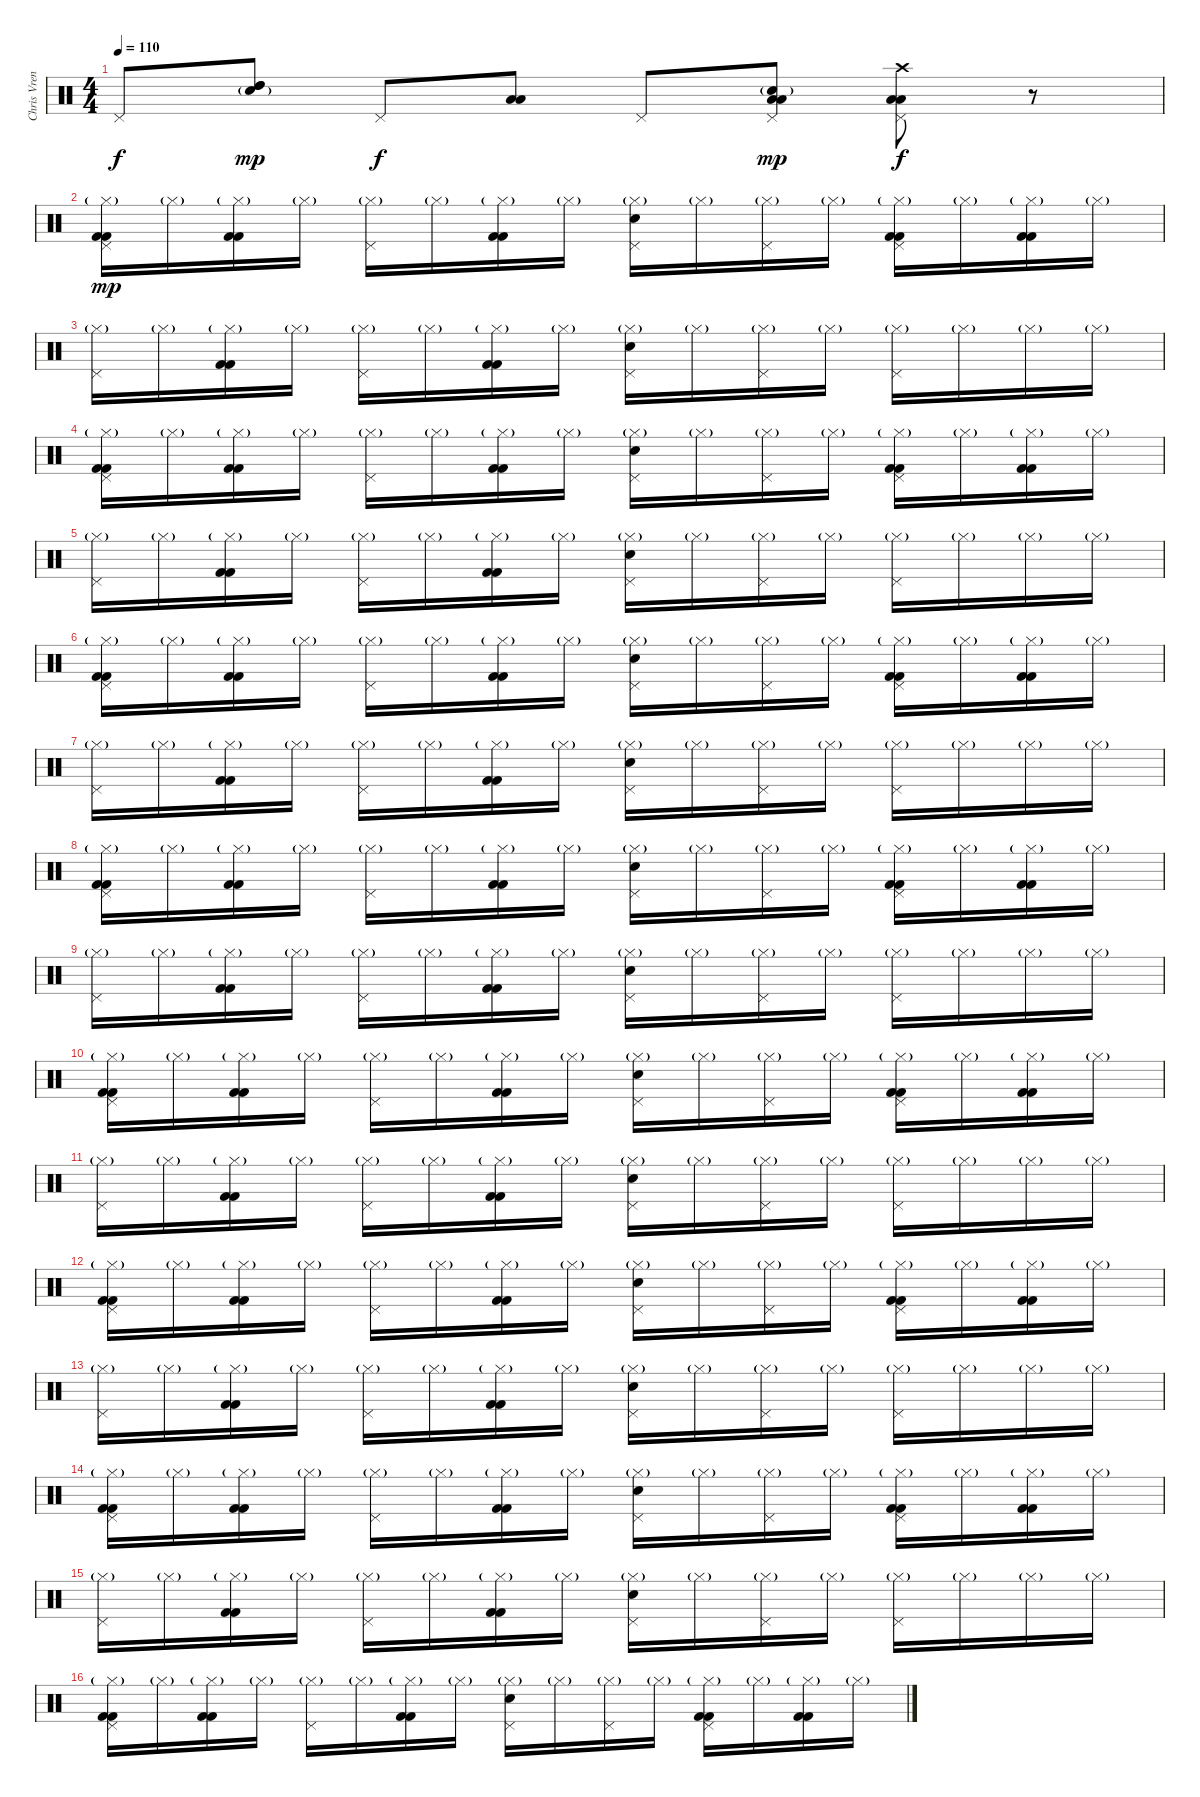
\track ("Chris Vrenna " "Chris Vren") {instrument percussion}
\staff {score}
\articulation defaults
\ts (4 4)
\tempo 110
\clef neutral
\ks c "Pedal Hi-Hat (hit)".8{dy f}
("Snare (hit) 2"{g} "High Tom (hit)" "High Tom (hit)").8{dy mp} "Pedal Hi-Hat (hit)".8{dy f} ("Low Floor Tom (hit)" "Low Floor Tom (hit)").8 "Pedal Hi-Hat (hit)".8 ("Snare (hit) 2"{g} "Pedal Hi-Hat (hit)" "Low Floor Tom (hit)" "Low Floor Tom (hit)").8{dy mp} ("Crash high (hit)" "Pedal Hi-Hat (hit)" "Low Floor Tom (hit)" "Low Floor Tom (hit)").8{dy f} r.8 |
("Pedal Hi-Hat (hit)" "Hi-Hat (closed)"{g} "Kick (hit) 2" "Kick (hit) 2").16{dy mp} "Hi-Hat (closed)"{g}.16 ("Hi-Hat (closed)"{g} "Kick (hit) 2" "Kick (hit) 2").16 "Hi-Hat (closed)"{g}.16 ("Pedal Hi-Hat (hit)" "Hi-Hat (closed)"{g}).16 "Hi-Hat (closed)"{g}.16 ("Hi-Hat (closed)"{g} "Kick (hit) 2" "Kick (hit) 2").16 "Hi-Hat (closed)"{g}.16 ("Pedal Hi-Hat (hit)" "Hi-Hat (closed)"{g} "Electric Snare (hit)").16 "Hi-Hat (closed)"{g}.16 ("Pedal Hi-Hat (hit)" "Hi-Hat (closed)"{g}).16 "Hi-Hat (closed)"{g}.16 ("Pedal Hi-Hat (hit)" "Hi-Hat (closed)"{g} "Kick (hit) 2" "Kick (hit) 2").16 "Hi-Hat (closed)"{g}.16 ("Hi-Hat (closed)"{g} "Kick (hit) 2" "Kick (hit) 2").16 "Hi-Hat (closed)"{g}.16 |
("Pedal Hi-Hat (hit)" "Hi-Hat (closed)"{g}).16 "Hi-Hat (closed)"{g}.16 ("Hi-Hat (closed)"{g} "Kick (hit) 2" "Kick (hit) 2").16 "Hi-Hat (closed)"{g}.16 ("Pedal Hi-Hat (hit)" "Hi-Hat (closed)"{g}).16 "Hi-Hat (closed)"{g}.16 ("Hi-Hat (closed)"{g} "Kick (hit) 2" "Kick (hit) 2").16 "Hi-Hat (closed)"{g}.16 ("Pedal Hi-Hat (hit)" "Hi-Hat (closed)"{g} "Electric Snare (hit)").16 "Hi-Hat (closed)"{g}.16 ("Pedal Hi-Hat (hit)" "Hi-Hat (closed)"{g}).16 "Hi-Hat (closed)"{g}.16 ("Pedal Hi-Hat (hit)" "Hi-Hat (closed)"{g}).16 "Hi-Hat (closed)"{g}.16 "Hi-Hat (closed)"{g}.16 "Hi-Hat (closed)"{g}.16 |
("Pedal Hi-Hat (hit)" "Hi-Hat (closed)"{g} "Kick (hit) 2" "Kick (hit) 2").16 "Hi-Hat (closed)"{g}.16 ("Hi-Hat (closed)"{g} "Kick (hit) 2" "Kick (hit) 2").16 "Hi-Hat (closed)"{g}.16 ("Pedal Hi-Hat (hit)" "Hi-Hat (closed)"{g}).16 "Hi-Hat (closed)"{g}.16 ("Hi-Hat (closed)"{g} "Kick (hit) 2" "Kick (hit) 2").16 "Hi-Hat (closed)"{g}.16 ("Pedal Hi-Hat (hit)" "Hi-Hat (closed)"{g} "Electric Snare (hit)").16 "Hi-Hat (closed)"{g}.16 ("Pedal Hi-Hat (hit)" "Hi-Hat (closed)"{g}).16 "Hi-Hat (closed)"{g}.16 ("Pedal Hi-Hat (hit)" "Hi-Hat (closed)"{g} "Kick (hit) 2" "Kick (hit) 2").16 "Hi-Hat (closed)"{g}.16 ("Hi-Hat (closed)"{g} "Kick (hit) 2" "Kick (hit) 2").16 "Hi-Hat (closed)"{g}.16 |
("Pedal Hi-Hat (hit)" "Hi-Hat (closed)"{g}).16 "Hi-Hat (closed)"{g}.16 ("Hi-Hat (closed)"{g} "Kick (hit) 2" "Kick (hit) 2").16 "Hi-Hat (closed)"{g}.16 ("Pedal Hi-Hat (hit)" "Hi-Hat (closed)"{g}).16 "Hi-Hat (closed)"{g}.16 ("Hi-Hat (closed)"{g} "Kick (hit) 2" "Kick (hit) 2").16 "Hi-Hat (closed)"{g}.16 ("Pedal Hi-Hat (hit)" "Hi-Hat (closed)"{g} "Electric Snare (hit)").16 "Hi-Hat (closed)"{g}.16 ("Pedal Hi-Hat (hit)" "Hi-Hat (closed)"{g}).16 "Hi-Hat (closed)"{g}.16 ("Pedal Hi-Hat (hit)" "Hi-Hat (closed)"{g}).16 "Hi-Hat (closed)"{g}.16 "Hi-Hat (closed)"{g}.16 "Hi-Hat (closed)"{g}.16 |
("Pedal Hi-Hat (hit)" "Hi-Hat (closed)"{g} "Kick (hit) 2" "Kick (hit) 2").16 "Hi-Hat (closed)"{g}.16 ("Hi-Hat (closed)"{g} "Kick (hit) 2" "Kick (hit) 2").16 "Hi-Hat (closed)"{g}.16 ("Pedal Hi-Hat (hit)" "Hi-Hat (closed)"{g}).16 "Hi-Hat (closed)"{g}.16 ("Hi-Hat (closed)"{g} "Kick (hit) 2" "Kick (hit) 2").16 "Hi-Hat (closed)"{g}.16 ("Pedal Hi-Hat (hit)" "Hi-Hat (closed)"{g} "Electric Snare (hit)").16 "Hi-Hat (closed)"{g}.16 ("Pedal Hi-Hat (hit)" "Hi-Hat (closed)"{g}).16 "Hi-Hat (closed)"{g}.16 ("Pedal Hi-Hat (hit)" "Hi-Hat (closed)"{g} "Kick (hit) 2" "Kick (hit) 2").16 "Hi-Hat (closed)"{g}.16 ("Hi-Hat (closed)"{g} "Kick (hit) 2" "Kick (hit) 2").16 "Hi-Hat (closed)"{g}.16 |
("Pedal Hi-Hat (hit)" "Hi-Hat (closed)"{g}).16 "Hi-Hat (closed)"{g}.16 ("Hi-Hat (closed)"{g} "Kick (hit) 2" "Kick (hit) 2").16 "Hi-Hat (closed)"{g}.16 ("Pedal Hi-Hat (hit)" "Hi-Hat (closed)"{g}).16 "Hi-Hat (closed)"{g}.16 ("Hi-Hat (closed)"{g} "Kick (hit) 2" "Kick (hit) 2").16 "Hi-Hat (closed)"{g}.16 ("Pedal Hi-Hat (hit)" "Hi-Hat (closed)"{g} "Electric Snare (hit)").16 "Hi-Hat (closed)"{g}.16 ("Pedal Hi-Hat (hit)" "Hi-Hat (closed)"{g}).16 "Hi-Hat (closed)"{g}.16 ("Pedal Hi-Hat (hit)" "Hi-Hat (closed)"{g}).16 "Hi-Hat (closed)"{g}.16 "Hi-Hat (closed)"{g}.16 "Hi-Hat (closed)"{g}.16 |
("Pedal Hi-Hat (hit)" "Hi-Hat (closed)"{g} "Kick (hit) 2" "Kick (hit) 2").16 "Hi-Hat (closed)"{g}.16 ("Hi-Hat (closed)"{g} "Kick (hit) 2" "Kick (hit) 2").16 "Hi-Hat (closed)"{g}.16 ("Pedal Hi-Hat (hit)" "Hi-Hat (closed)"{g}).16 "Hi-Hat (closed)"{g}.16 ("Hi-Hat (closed)"{g} "Kick (hit) 2" "Kick (hit) 2").16 "Hi-Hat (closed)"{g}.16 ("Pedal Hi-Hat (hit)" "Hi-Hat (closed)"{g} "Electric Snare (hit)").16 "Hi-Hat (closed)"{g}.16 ("Pedal Hi-Hat (hit)" "Hi-Hat (closed)"{g}).16 "Hi-Hat (closed)"{g}.16 ("Pedal Hi-Hat (hit)" "Hi-Hat (closed)"{g} "Kick (hit) 2" "Kick (hit) 2").16 "Hi-Hat (closed)"{g}.16 ("Hi-Hat (closed)"{g} "Kick (hit) 2" "Kick (hit) 2").16 "Hi-Hat (closed)"{g}.16 |
("Pedal Hi-Hat (hit)" "Hi-Hat (closed)"{g}).16 "Hi-Hat (closed)"{g}.16 ("Hi-Hat (closed)"{g} "Kick (hit) 2" "Kick (hit) 2").16 "Hi-Hat (closed)"{g}.16 ("Pedal Hi-Hat (hit)" "Hi-Hat (closed)"{g}).16 "Hi-Hat (closed)"{g}.16 ("Hi-Hat (closed)"{g} "Kick (hit) 2" "Kick (hit) 2").16 "Hi-Hat (closed)"{g}.16 ("Pedal Hi-Hat (hit)" "Hi-Hat (closed)"{g} "Electric Snare (hit)").16 "Hi-Hat (closed)"{g}.16 ("Pedal Hi-Hat (hit)" "Hi-Hat (closed)"{g}).16 "Hi-Hat (closed)"{g}.16 ("Pedal Hi-Hat (hit)" "Hi-Hat (closed)"{g}).16 "Hi-Hat (closed)"{g}.16 "Hi-Hat (closed)"{g}.16 "Hi-Hat (closed)"{g}.16 |
("Pedal Hi-Hat (hit)" "Hi-Hat (closed)"{g} "Kick (hit) 2" "Kick (hit) 2").16 "Hi-Hat (closed)"{g}.16 ("Hi-Hat (closed)"{g} "Kick (hit) 2" "Kick (hit) 2").16 "Hi-Hat (closed)"{g}.16 ("Pedal Hi-Hat (hit)" "Hi-Hat (closed)"{g}).16 "Hi-Hat (closed)"{g}.16 ("Hi-Hat (closed)"{g} "Kick (hit) 2" "Kick (hit) 2").16 "Hi-Hat (closed)"{g}.16 ("Pedal Hi-Hat (hit)" "Hi-Hat (closed)"{g} "Electric Snare (hit)").16 "Hi-Hat (closed)"{g}.16 ("Pedal Hi-Hat (hit)" "Hi-Hat (closed)"{g}).16 "Hi-Hat (closed)"{g}.16 ("Pedal Hi-Hat (hit)" "Hi-Hat (closed)"{g} "Kick (hit) 2" "Kick (hit) 2").16 "Hi-Hat (closed)"{g}.16 ("Hi-Hat (closed)"{g} "Kick (hit) 2" "Kick (hit) 2").16 "Hi-Hat (closed)"{g}.16 |
("Pedal Hi-Hat (hit)" "Hi-Hat (closed)"{g}).16 "Hi-Hat (closed)"{g}.16 ("Hi-Hat (closed)"{g} "Kick (hit) 2" "Kick (hit) 2").16 "Hi-Hat (closed)"{g}.16 ("Pedal Hi-Hat (hit)" "Hi-Hat (closed)"{g}).16 "Hi-Hat (closed)"{g}.16 ("Hi-Hat (closed)"{g} "Kick (hit) 2" "Kick (hit) 2").16 "Hi-Hat (closed)"{g}.16 ("Pedal Hi-Hat (hit)" "Hi-Hat (closed)"{g} "Electric Snare (hit)").16 "Hi-Hat (closed)"{g}.16 ("Pedal Hi-Hat (hit)" "Hi-Hat (closed)"{g}).16 "Hi-Hat (closed)"{g}.16 ("Pedal Hi-Hat (hit)" "Hi-Hat (closed)"{g}).16 "Hi-Hat (closed)"{g}.16 "Hi-Hat (closed)"{g}.16 "Hi-Hat (closed)"{g}.16 |
("Pedal Hi-Hat (hit)" "Hi-Hat (closed)"{g} "Kick (hit) 2" "Kick (hit) 2").16 "Hi-Hat (closed)"{g}.16 ("Hi-Hat (closed)"{g} "Kick (hit) 2" "Kick (hit) 2").16 "Hi-Hat (closed)"{g}.16 ("Pedal Hi-Hat (hit)" "Hi-Hat (closed)"{g}).16 "Hi-Hat (closed)"{g}.16 ("Hi-Hat (closed)"{g} "Kick (hit) 2" "Kick (hit) 2").16 "Hi-Hat (closed)"{g}.16 ("Pedal Hi-Hat (hit)" "Hi-Hat (closed)"{g} "Electric Snare (hit)").16 "Hi-Hat (closed)"{g}.16 ("Pedal Hi-Hat (hit)" "Hi-Hat (closed)"{g}).16 "Hi-Hat (closed)"{g}.16 ("Pedal Hi-Hat (hit)" "Hi-Hat (closed)"{g} "Kick (hit) 2" "Kick (hit) 2").16 "Hi-Hat (closed)"{g}.16 ("Hi-Hat (closed)"{g} "Kick (hit) 2" "Kick (hit) 2").16 "Hi-Hat (closed)"{g}.16 |
("Pedal Hi-Hat (hit)" "Hi-Hat (closed)"{g}).16 "Hi-Hat (closed)"{g}.16 ("Hi-Hat (closed)"{g} "Kick (hit) 2" "Kick (hit) 2").16 "Hi-Hat (closed)"{g}.16 ("Pedal Hi-Hat (hit)" "Hi-Hat (closed)"{g}).16 "Hi-Hat (closed)"{g}.16 ("Hi-Hat (closed)"{g} "Kick (hit) 2" "Kick (hit) 2").16 "Hi-Hat (closed)"{g}.16 ("Pedal Hi-Hat (hit)" "Hi-Hat (closed)"{g} "Electric Snare (hit)").16 "Hi-Hat (closed)"{g}.16 ("Pedal Hi-Hat (hit)" "Hi-Hat (closed)"{g}).16 "Hi-Hat (closed)"{g}.16 ("Pedal Hi-Hat (hit)" "Hi-Hat (closed)"{g}).16 "Hi-Hat (closed)"{g}.16 "Hi-Hat (closed)"{g}.16 "Hi-Hat (closed)"{g}.16 |
("Pedal Hi-Hat (hit)" "Hi-Hat (closed)"{g} "Kick (hit) 2" "Kick (hit) 2").16 "Hi-Hat (closed)"{g}.16 ("Hi-Hat (closed)"{g} "Kick (hit) 2" "Kick (hit) 2").16 "Hi-Hat (closed)"{g}.16 ("Pedal Hi-Hat (hit)" "Hi-Hat (closed)"{g}).16 "Hi-Hat (closed)"{g}.16 ("Hi-Hat (closed)"{g} "Kick (hit) 2" "Kick (hit) 2").16 "Hi-Hat (closed)"{g}.16 ("Pedal Hi-Hat (hit)" "Hi-Hat (closed)"{g} "Electric Snare (hit)").16 "Hi-Hat (closed)"{g}.16 ("Pedal Hi-Hat (hit)" "Hi-Hat (closed)"{g}).16 "Hi-Hat (closed)"{g}.16 ("Pedal Hi-Hat (hit)" "Hi-Hat (closed)"{g} "Kick (hit) 2" "Kick (hit) 2").16 "Hi-Hat (closed)"{g}.16 ("Hi-Hat (closed)"{g} "Kick (hit) 2" "Kick (hit) 2").16 "Hi-Hat (closed)"{g}.16 |
("Pedal Hi-Hat (hit)" "Hi-Hat (closed)"{g}).16 "Hi-Hat (closed)"{g}.16 ("Hi-Hat (closed)"{g} "Kick (hit) 2" "Kick (hit) 2").16 "Hi-Hat (closed)"{g}.16 ("Pedal Hi-Hat (hit)" "Hi-Hat (closed)"{g}).16 "Hi-Hat (closed)"{g}.16 ("Hi-Hat (closed)"{g} "Kick (hit) 2" "Kick (hit) 2").16 "Hi-Hat (closed)"{g}.16 ("Pedal Hi-Hat (hit)" "Hi-Hat (closed)"{g} "Electric Snare (hit)").16 "Hi-Hat (closed)"{g}.16 ("Pedal Hi-Hat (hit)" "Hi-Hat (closed)"{g}).16 "Hi-Hat (closed)"{g}.16 ("Pedal Hi-Hat (hit)" "Hi-Hat (closed)"{g}).16 "Hi-Hat (closed)"{g}.16 "Hi-Hat (closed)"{g}.16 "Hi-Hat (closed)"{g}.16 |
("Pedal Hi-Hat (hit)" "Hi-Hat (closed)"{g} "Kick (hit) 2" "Kick (hit) 2").16 "Hi-Hat (closed)"{g}.16 ("Hi-Hat (closed)"{g} "Kick (hit) 2" "Kick (hit) 2").16 "Hi-Hat (closed)"{g}.16 ("Pedal Hi-Hat (hit)" "Hi-Hat (closed)"{g}).16 "Hi-Hat (closed)"{g}.16 ("Hi-Hat (closed)"{g} "Kick (hit) 2" "Kick (hit) 2").16 "Hi-Hat (closed)"{g}.16 ("Pedal Hi-Hat (hit)" "Hi-Hat (closed)"{g} "Electric Snare (hit)").16 "Hi-Hat (closed)"{g}.16 ("Pedal Hi-Hat (hit)" "Hi-Hat (closed)"{g}).16 "Hi-Hat (closed)"{g}.16 ("Pedal Hi-Hat (hit)" "Hi-Hat (closed)"{g} "Kick (hit) 2" "Kick (hit) 2").16 "Hi-Hat (closed)"{g}.16 ("Hi-Hat (closed)"{g} "Kick (hit) 2" "Kick (hit) 2").16 "Hi-Hat (closed)"{g}.16
